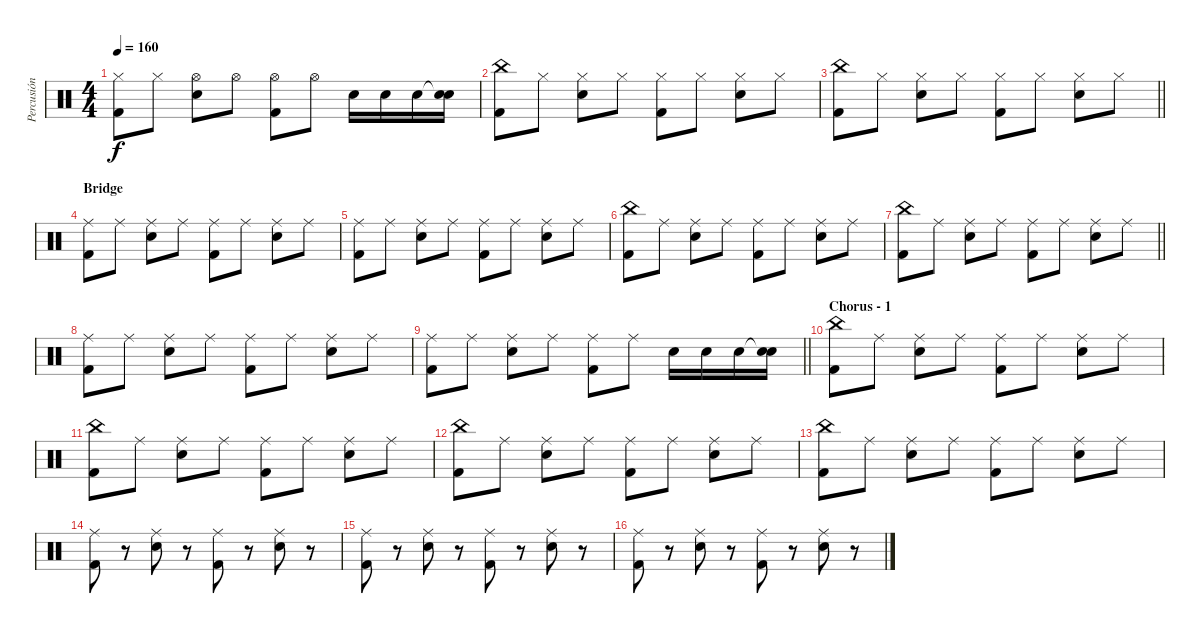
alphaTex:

\track ("Percusión" "Percusión") {instrument percussion}
\staff {score}
\articulation defaults
\ts (4 4)
\tempo 160
\clef neutral
\ks c
("Hi-Hat (closed)" "Kick (hit) 2").8{dy f} "Hi-Hat (closed)".8 ("Hi-Hat (open)" "Electric Snare (hit)").8 "Hi-Hat (open)".8 ("Hi-Hat (open)" "Kick (hit) 2").8 "Hi-Hat (open)".8 "Electric Snare (hit)".16 "Electric Snare (hit)".16 "Electric Snare (hit)".16 ("Snare (hit)"{t} "Electric Snare (hit)").16 |
("China (hit)" "Kick (hit) 2").8 "Hi-Hat (closed)".8 ("Hi-Hat (closed)" "Electric Snare (hit)").8 "Hi-Hat (closed)".8 ("Hi-Hat (closed)" "Kick (hit) 2").8 "Hi-Hat (closed)".8 ("Hi-Hat (closed)" "Electric Snare (hit)").8 "Hi-Hat (closed)".8 |
\barLineRight lightlight
("China (hit)" "Kick (hit) 2").8 "Hi-Hat (closed)".8 ("Hi-Hat (closed)" "Electric Snare (hit)").8 "Hi-Hat (closed)".8 ("Hi-Hat (closed)" "Kick (hit) 2").8 "Hi-Hat (closed)".8 ("Hi-Hat (closed)" "Electric Snare (hit)").8 "Hi-Hat (closed)".8 |
\section ("" "Bridge")
("Ride (middle)" "Kick (hit) 2").8 "Ride (middle)".8 ("Ride (middle)" "Electric Snare (hit)").8 "Ride (middle)".8 ("Ride (middle)" "Kick (hit) 2").8 "Ride (middle)".8 ("Ride (middle)" "Electric Snare (hit)").8 "Ride (middle)".8 |
("Ride (middle)" "Kick (hit) 2").8 "Ride (middle)".8 ("Ride (middle)" "Electric Snare (hit)").8 "Ride (middle)".8 ("Ride (middle)" "Kick (hit) 2").8 "Ride (middle)".8 ("Ride (middle)" "Electric Snare (hit)").8 "Ride (middle)".8 |
("China (hit)" "Kick (hit) 2").8 "Ride (middle)".8 ("Ride (middle)" "Electric Snare (hit)").8 "Ride (middle)".8 ("Ride (middle)" "Kick (hit) 2").8 "Ride (middle)".8 ("Ride (middle)" "Electric Snare (hit)").8 "Ride (middle)".8 |
\barLineRight lightlight
("China (hit)" "Kick (hit) 2").8 "Ride (middle)".8 ("Ride (middle)" "Electric Snare (hit)").8 "Ride (middle)".8 ("Ride (middle)" "Kick (hit) 2").8 "Ride (middle)".8 ("Ride (middle)" "Electric Snare (hit)").8 "Ride (middle)".8 |
("Ride (middle)" "Kick (hit) 2").8 "Ride (middle)".8 ("Ride (middle)" "Electric Snare (hit)").8 "Ride (middle)".8 ("Ride (middle)" "Kick (hit) 2").8 "Ride (middle)".8 ("Ride (middle)" "Electric Snare (hit)").8 "Ride (middle)".8 |
\barLineRight lightlight
("Ride (middle)" "Kick (hit) 2").8 "Ride (middle)".8 ("Ride (middle)" "Electric Snare (hit)").8 "Ride (middle)".8 ("Ride (middle)" "Kick (hit) 2").8 "Ride (middle)".8 "Electric Snare (hit)".16 "Electric Snare (hit)".16 "Electric Snare (hit)".16 ("Snare (hit)"{t} "Electric Snare (hit)").16 |
\section ("" "Chorus - 1")
("China (hit)" "Kick (hit) 2").8 "Ride (middle)".8 ("Ride (middle)" "Electric Snare (hit)").8 "Ride (middle)".8 ("Ride (middle)" "Kick (hit) 2").8 "Ride (middle)".8 ("Ride (middle)" "Electric Snare (hit)").8 "Ride (middle)".8 |
("China (hit)" "Kick (hit) 2").8 "Ride (middle)".8 ("Ride (middle)" "Electric Snare (hit)").8 "Ride (middle)".8 ("Ride (middle)" "Kick (hit) 2").8 "Ride (middle)".8 ("Ride (middle)" "Electric Snare (hit)").8 "Ride (middle)".8 |
("China (hit)" "Kick (hit) 2").8 "Ride (middle)".8 ("Ride (middle)" "Electric Snare (hit)").8 "Ride (middle)".8 ("Ride (middle)" "Kick (hit) 2").8 "Ride (middle)".8 ("Ride (middle)" "Electric Snare (hit)").8 "Ride (middle)".8 |
("China (hit)" "Kick (hit) 2").8 "Ride (middle)".8 ("Ride (middle)" "Electric Snare (hit)").8 "Ride (middle)".8 ("Ride (middle)" "Kick (hit) 2").8 "Ride (middle)".8 ("Ride (middle)" "Electric Snare (hit)").8 "Ride (middle)".8 |
("Ride (middle)" "Kick (hit) 2").8 r.8 ("Ride (middle)" "Electric Snare (hit)").8 r.8 ("Ride (middle)" "Kick (hit) 2").8 r.8 ("Ride (middle)" "Electric Snare (hit)").8 r.8 |
("Ride (middle)" "Kick (hit) 2").8 r.8 ("Ride (middle)" "Electric Snare (hit)").8 r.8 ("Ride (middle)" "Kick (hit) 2").8 r.8 ("Ride (middle)" "Electric Snare (hit)").8 r.8 |
("Ride (middle)" "Kick (hit) 2").8 r.8 ("Ride (middle)" "Electric Snare (hit)").8 r.8 ("Ride (middle)" "Kick (hit) 2").8 r.8 ("Ride (middle)" "Electric Snare (hit)").8 r.8
